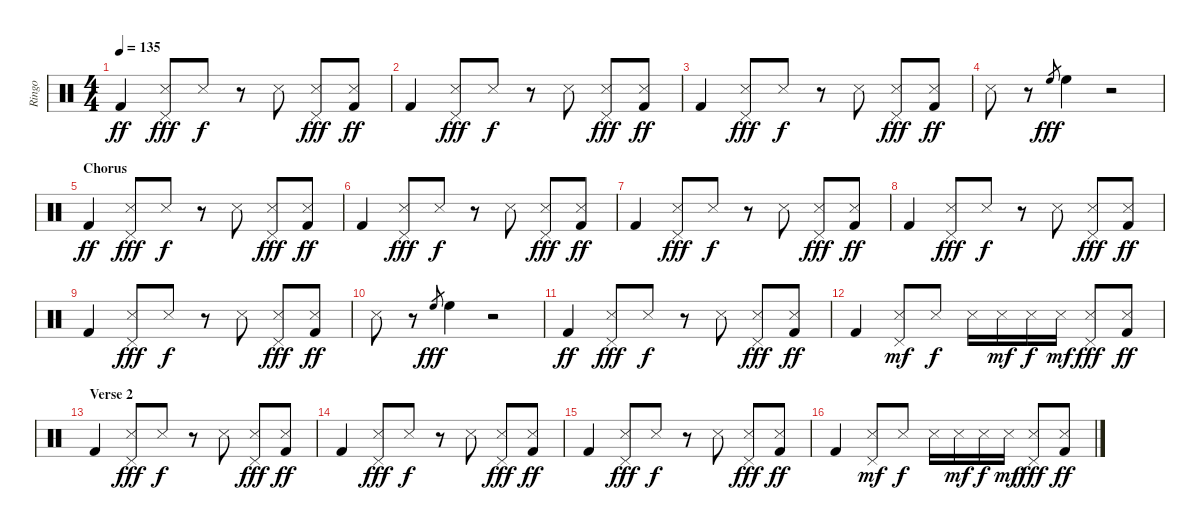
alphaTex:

\track ("Ringo" "Ringo") {instrument percussion}
\staff {score}
\articulation defaults
\ts (4 4)
\tempo 135
\clef neutral
\ks c "Kick (hit) 2".4{dy ff}
("Pedal Hi-Hat (hit)" "Snare (side stick) 3").8{dy fff} "Snare (side stick) 3".8{dy f} r.8 "Snare (side stick) 3".8 ("Pedal Hi-Hat (hit)" "Snare (side stick) 3").8{dy fff} ("Snare (side stick) 3" "Kick (hit) 2").8{dy ff} |
"Kick (hit) 2".4 ("Pedal Hi-Hat (hit)" "Snare (side stick) 3").8{dy fff} "Snare (side stick) 3".8{dy f} r.8 "Snare (side stick) 3".8 ("Pedal Hi-Hat (hit)" "Snare (side stick) 3").8{dy fff} ("Snare (side stick) 3" "Kick (hit) 2").8{dy ff} |
"Kick (hit) 2".4 ("Pedal Hi-Hat (hit)" "Snare (side stick) 3").8{dy fff} "Snare (side stick) 3".8{dy f} r.8 "Snare (side stick) 3".8 ("Pedal Hi-Hat (hit)" "Snare (side stick) 3").8{dy fff} ("Snare (side stick) 3" "Kick (hit) 2").8{dy ff} |
"Snare (side stick) 3".8 r.8 "High Floor Tom (hit)".8{gr dy fff} "High Floor Tom (hit)".4 r.2 |
\section ("" "Chorus")
"Kick (hit) 2".4{dy ff} ("Pedal Hi-Hat (hit)" "Snare (side stick) 3").8{dy fff} "Snare (side stick) 3".8{dy f} r.8 "Snare (side stick) 3".8 ("Pedal Hi-Hat (hit)" "Snare (side stick) 3").8{dy fff} ("Snare (side stick) 3" "Kick (hit) 2").8{dy ff} |
"Kick (hit) 2".4 ("Pedal Hi-Hat (hit)" "Snare (side stick) 3").8{dy fff} "Snare (side stick) 3".8{dy f} r.8 "Snare (side stick) 3".8 ("Pedal Hi-Hat (hit)" "Snare (side stick) 3").8{dy fff} ("Snare (side stick) 3" "Kick (hit) 2").8{dy ff} |
"Kick (hit) 2".4 ("Pedal Hi-Hat (hit)" "Snare (side stick) 3").8{dy fff} "Snare (side stick) 3".8{dy f} r.8 "Snare (side stick) 3".8 ("Pedal Hi-Hat (hit)" "Snare (side stick) 3").8{dy fff} ("Snare (side stick) 3" "Kick (hit) 2").8{dy ff} |
"Kick (hit) 2".4 ("Pedal Hi-Hat (hit)" "Snare (side stick) 3").8{dy fff} "Snare (side stick) 3".8{dy f} r.8 "Snare (side stick) 3".8 ("Pedal Hi-Hat (hit)" "Snare (side stick) 3").8{dy fff} ("Snare (side stick) 3" "Kick (hit) 2").8{dy ff} |
"Kick (hit) 2".4 ("Pedal Hi-Hat (hit)" "Snare (side stick) 3").8{dy fff} "Snare (side stick) 3".8{dy f} r.8 "Snare (side stick) 3".8 ("Pedal Hi-Hat (hit)" "Snare (side stick) 3").8{dy fff} ("Snare (side stick) 3" "Kick (hit) 2").8{dy ff} |
"Snare (side stick) 3".8 r.8 "High Floor Tom (hit)".8{gr dy fff} "High Floor Tom (hit)".4 r.2 |
"Kick (hit) 2".4{dy ff} ("Pedal Hi-Hat (hit)" "Snare (side stick) 3").8{dy fff} "Snare (side stick) 3".8{dy f} r.8 "Snare (side stick) 3".8 ("Pedal Hi-Hat (hit)" "Snare (side stick) 3").8{dy fff} ("Snare (side stick) 3" "Kick (hit) 2").8{dy ff} |
"Kick (hit) 2".4 ("Pedal Hi-Hat (hit)" "Snare (side stick) 3").8{dy mf} "Snare (side stick) 3".8{dy f} "Snare (side stick) 3".16 "Snare (side stick) 3".16{dy mf} "Snare (side stick) 3".16{dy f} "Snare (side stick) 3".16{dy mf} ("Pedal Hi-Hat (hit)" "Snare (side stick) 3").8{dy fff} ("Snare (side stick) 3" "Kick (hit) 2").8{dy ff} |
\section ("" "Verse 2")
"Kick (hit) 2".4 ("Pedal Hi-Hat (hit)" "Snare (side stick) 3").8{dy fff} "Snare (side stick) 3".8{dy f} r.8 "Snare (side stick) 3".8 ("Pedal Hi-Hat (hit)" "Snare (side stick) 3").8{dy fff} ("Snare (side stick) 3" "Kick (hit) 2").8{dy ff} |
"Kick (hit) 2".4 ("Pedal Hi-Hat (hit)" "Snare (side stick) 3").8{dy fff} "Snare (side stick) 3".8{dy f} r.8 "Snare (side stick) 3".8 ("Pedal Hi-Hat (hit)" "Snare (side stick) 3").8{dy fff} ("Snare (side stick) 3" "Kick (hit) 2").8{dy ff} |
"Kick (hit) 2".4 ("Pedal Hi-Hat (hit)" "Snare (side stick) 3").8{dy fff} "Snare (side stick) 3".8{dy f} r.8 "Snare (side stick) 3".8 ("Pedal Hi-Hat (hit)" "Snare (side stick) 3").8{dy fff} ("Snare (side stick) 3" "Kick (hit) 2").8{dy ff} |
"Kick (hit) 2".4 ("Pedal Hi-Hat (hit)" "Snare (side stick) 3").8{dy mf} "Snare (side stick) 3".8{dy f} "Snare (side stick) 3".16 "Snare (side stick) 3".16{dy mf} "Snare (side stick) 3".16{dy f} "Snare (side stick) 3".16{dy mf} ("Pedal Hi-Hat (hit)" "Snare (side stick) 3").8{dy fff} ("Snare (side stick) 3" "Kick (hit) 2").8{dy ff}
